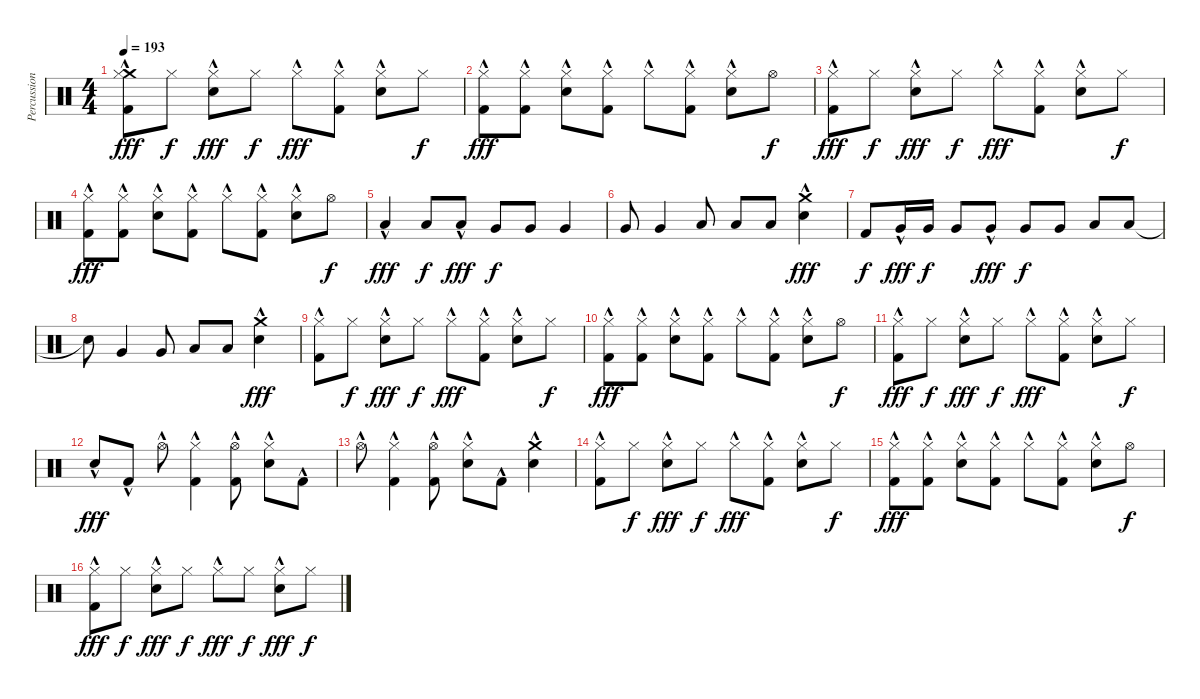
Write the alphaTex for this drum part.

\track ("Percussion" "Percussion") {instrument percussion}
\staff {score}
\articulation defaults
\ts (4 4)
\tempo 193
\clef neutral
\ks c
("Crash medium (hit)"{hac} "Hi-Hat (closed)"{hac} "Kick (hit) 2"{hac}).8{dy fff} "Hi-Hat (closed)".8{dy f} ("Hi-Hat (closed)"{hac} "Electric Snare (hit)"{hac}).8{dy fff} "Hi-Hat (closed)".8{dy f} "Hi-Hat (closed)"{hac}.8{dy fff} ("Hi-Hat (closed)" "Kick (hit) 2"{hac}).8 ("Hi-Hat (closed)"{hac} "Electric Snare (hit)"{hac}).8 "Hi-Hat (closed)".8{dy f} |
("Hi-Hat (closed)"{hac} "Kick (hit) 2"{hac}).8{dy fff} ("Hi-Hat (closed)" "Kick (hit) 2"{hac}).8 ("Hi-Hat (closed)"{hac} "Electric Snare (hit)"{hac}).8 ("Hi-Hat (closed)" "Kick (hit) 2"{hac}).8 "Hi-Hat (closed)"{hac}.8 ("Hi-Hat (closed)" "Kick (hit) 2"{hac}).8 ("Hi-Hat (closed)"{hac} "Electric Snare (hit)"{hac}).8 "Hi-Hat (open)".8{dy f} |
("Hi-Hat (closed)"{hac} "Kick (hit) 2"{hac}).8{dy fff} "Hi-Hat (closed)".8{dy f} ("Hi-Hat (closed)"{hac} "Electric Snare (hit)"{hac}).8{dy fff} "Hi-Hat (closed)".8{dy f} "Hi-Hat (closed)"{hac}.8{dy fff} ("Hi-Hat (closed)" "Kick (hit) 2"{hac}).8 ("Hi-Hat (closed)"{hac} "Electric Snare (hit)"{hac}).8 "Hi-Hat (closed)".8{dy f} |
("Hi-Hat (closed)"{hac} "Kick (hit) 2"{hac}).8{dy fff} ("Hi-Hat (closed)" "Kick (hit) 2"{hac}).8 ("Hi-Hat (closed)"{hac} "Electric Snare (hit)"{hac}).8 ("Hi-Hat (closed)" "Kick (hit) 2"{hac}).8 "Hi-Hat (closed)"{hac}.8 ("Hi-Hat (closed)" "Kick (hit) 2"{hac}).8 ("Hi-Hat (closed)"{hac} "Electric Snare (hit)"{hac}).8 "Hi-Hat (open)".8{dy f} |
"Low Tom (hit)"{hac}.4{dy fff} "Low Tom (hit)".8{dy f} "Low Tom (hit)"{hac}.8{dy fff} "Very Low Tom (hit)".8{dy f} "Very Low Tom (hit)".8 "Very Low Tom (hit)".4 |
"Very Low Tom (hit)".8 "Very Low Tom (hit)".4 "Low Floor Tom (hit)".8 "Low Floor Tom (hit)".8 "Low Floor Tom (hit)".8 ("Crash medium (hit)"{hac} "Electric Snare (hit)"{hac}).4{dy fff} |
"Kick (hit) 2".8{dy f} "Very Low Tom (hit)"{hac}.16{dy fff} "Very Low Tom (hit)".16{dy f} "Very Low Tom (hit)".8 "Very Low Tom (hit)"{hac}.8{dy fff} "Very Low Tom (hit)".8{dy f} "Very Low Tom (hit)".8 "Low Floor Tom (hit)".8 "Low Floor Tom (hit)".8 |
"Snare (hit)"{t}.8 "Very Low Tom (hit)".4 "Very Low Tom (hit)".8 "Low Floor Tom (hit)".8 "Low Floor Tom (hit)".8 ("Crash medium (hit)"{hac} "Electric Snare (hit)"{hac}).4{dy fff} |
("Hi-Hat (closed)"{hac} "Kick (hit) 2"{hac}).8 "Hi-Hat (closed)".8{dy f} ("Hi-Hat (closed)"{hac} "Electric Snare (hit)"{hac}).8{dy fff} "Hi-Hat (closed)".8{dy f} "Hi-Hat (closed)"{hac}.8{dy fff} ("Hi-Hat (closed)" "Kick (hit) 2"{hac}).8 ("Hi-Hat (closed)"{hac} "Electric Snare (hit)"{hac}).8 "Hi-Hat (closed)".8{dy f} |
("Hi-Hat (closed)"{hac} "Kick (hit) 2"{hac}).8{dy fff} ("Hi-Hat (closed)" "Kick (hit) 2"{hac}).8 ("Hi-Hat (closed)"{hac} "Electric Snare (hit)"{hac}).8 ("Hi-Hat (closed)" "Kick (hit) 2"{hac}).8 "Hi-Hat (closed)"{hac}.8 ("Hi-Hat (closed)" "Kick (hit) 2"{hac}).8 ("Hi-Hat (closed)"{hac} "Electric Snare (hit)"{hac}).8 "Hi-Hat (open)".8{dy f} |
("Hi-Hat (closed)"{hac} "Kick (hit) 2"{hac}).8{dy fff} "Hi-Hat (closed)".8{dy f} ("Hi-Hat (closed)"{hac} "Electric Snare (hit)"{hac}).8{dy fff} "Hi-Hat (closed)".8{dy f} "Hi-Hat (closed)"{hac}.8{dy fff} ("Hi-Hat (closed)" "Kick (hit) 2"{hac}).8 ("Hi-Hat (closed)"{hac} "Electric Snare (hit)"{hac}).8 "Hi-Hat (closed)".8{dy f} |
"Electric Snare (hit)"{hac}.8{dy fff} "Kick (hit) 2"{hac}.8 "Hi-Hat (open)"{hac}.8 ("Hi-Hat (closed)"{hac} "Kick (hit) 2"{hac}).4 ("Hi-Hat (open)"{hac} "Kick (hit) 2"{hac}).8 ("Hi-Hat (closed)"{hac} "Electric Snare (hit)"{hac}).8 "Kick (hit) 2"{hac}.8 |
"Hi-Hat (open)"{hac}.8 ("Hi-Hat (closed)"{hac} "Kick (hit) 2"{hac}).4 ("Hi-Hat (open)"{hac} "Kick (hit) 2"{hac}).8 ("Hi-Hat (closed)"{hac} "Electric Snare (hit)"{hac}).8 "Kick (hit) 2"{hac}.8 ("Crash medium (hit)"{hac} "Electric Snare (hit)"{hac}).4 |
("Hi-Hat (closed)"{hac} "Kick (hit) 2"{hac}).8 "Hi-Hat (closed)".8{dy f} ("Hi-Hat (closed)"{hac} "Electric Snare (hit)"{hac}).8{dy fff} "Hi-Hat (closed)".8{dy f} "Hi-Hat (closed)"{hac}.8{dy fff} ("Hi-Hat (closed)" "Kick (hit) 2"{hac}).8 ("Hi-Hat (closed)"{hac} "Electric Snare (hit)"{hac}).8 "Hi-Hat (closed)".8{dy f} |
("Hi-Hat (closed)"{hac} "Kick (hit) 2"{hac}).8{dy fff} ("Hi-Hat (closed)" "Kick (hit) 2"{hac}).8 ("Hi-Hat (closed)"{hac} "Electric Snare (hit)"{hac}).8 ("Hi-Hat (closed)" "Kick (hit) 2"{hac}).8 "Hi-Hat (closed)"{hac}.8 ("Hi-Hat (closed)" "Kick (hit) 2"{hac}).8 ("Hi-Hat (closed)"{hac} "Electric Snare (hit)"{hac}).8 "Hi-Hat (open)".8{dy f} |
("Hi-Hat (closed)"{hac} "Kick (hit) 2"{hac}).8{dy fff} "Hi-Hat (closed)".8{dy f} ("Hi-Hat (closed)"{hac} "Electric Snare (hit)"{hac}).8{dy fff} "Hi-Hat (closed)".8{dy f} "Hi-Hat (closed)"{hac}.8{dy fff} "Hi-Hat (closed)".8{dy f} ("Hi-Hat (closed)"{hac} "Electric Snare (hit)"{hac}).8{dy fff} "Hi-Hat (closed)".8{dy f}
